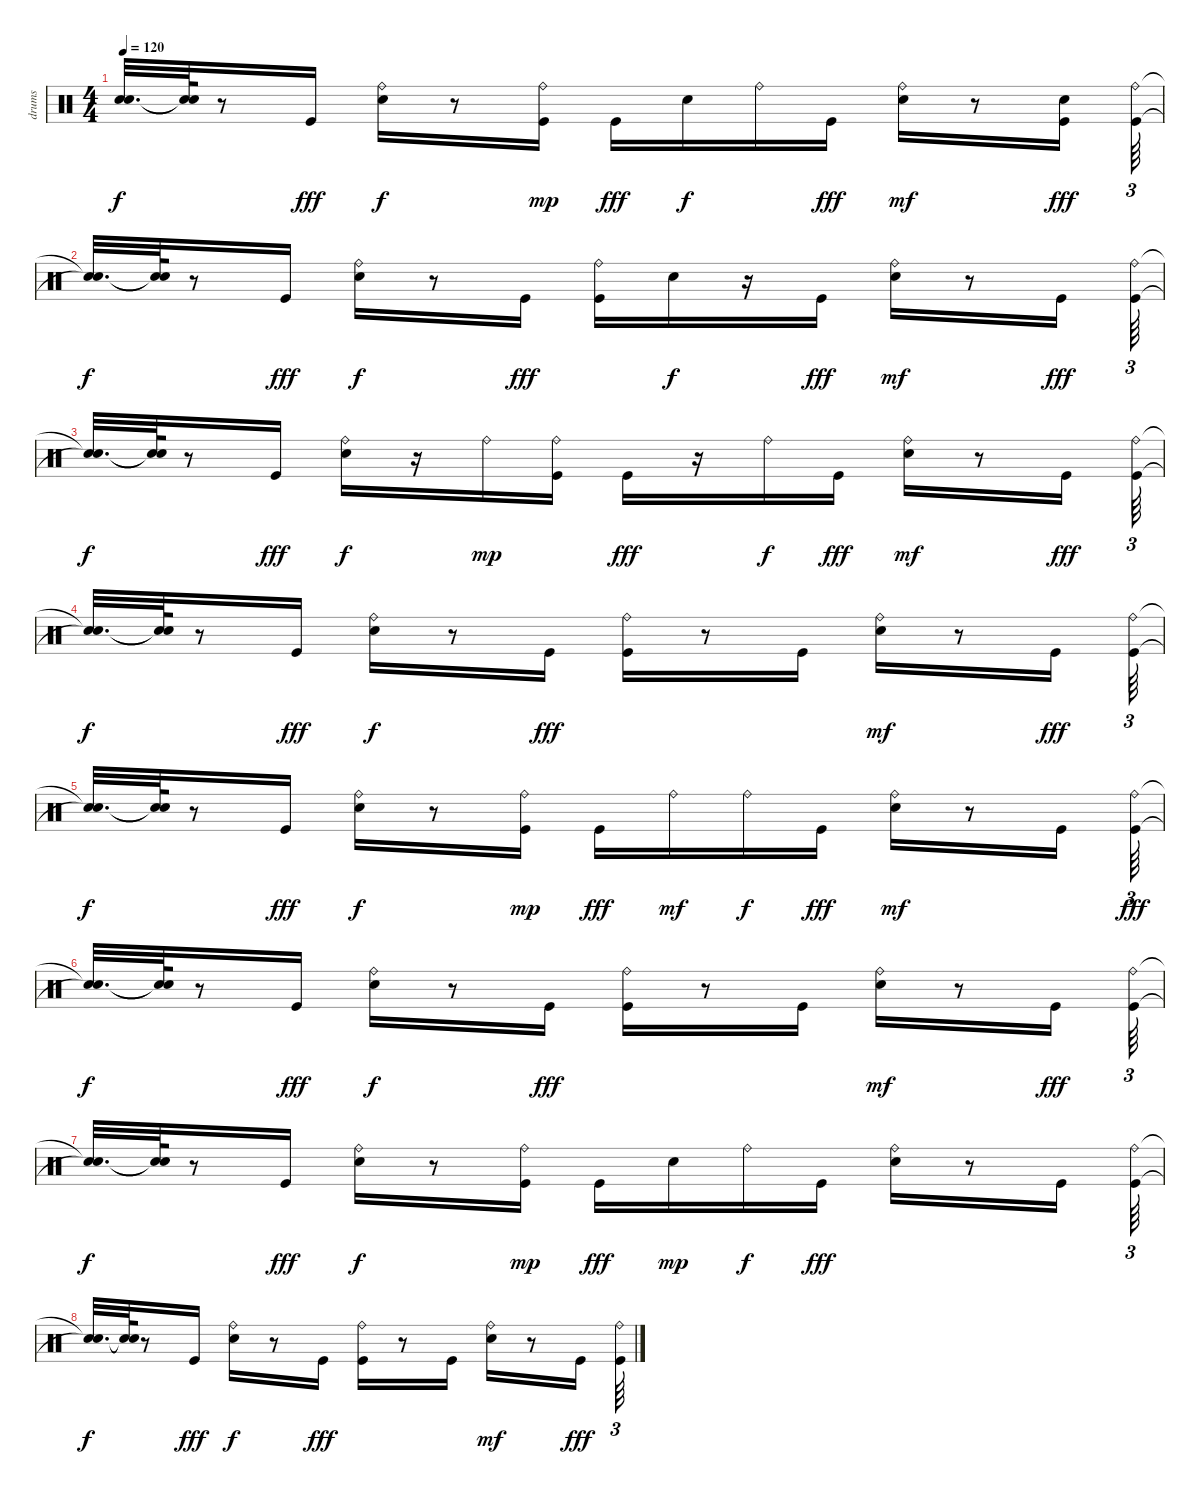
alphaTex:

\track ("drums" "drums") {instrument percussion}
\staff {score}
\articulation defaults
\ts (4 4)
\tempo 120
\clef neutral
\ks c
("Snare (hit)"{t} "Snare (hit)"{t}).32{d dy f} ("Snare (hit)"{t} "Snare (hit)"{t}).64 r.8 "Kick (hit)".16{dy fff} ("Snare (hit) 2" "Ride (bell)").16{dy f} r.8 ("Kick (hit)" "Ride (bell)").16{dy mp} "Kick (hit)".16{dy fff} "Snare (hit) 2".16{dy f} "Ride (bell)".16 "Kick (hit)".16{dy fff} ("Snare (hit) 2" "Ride (bell)").16{dy mf} r.8 ("Kick (hit)" "Snare (hit) 2").16{dy fff} ("Kick (hit)" "Ride (bell)").64{tu (3 2)} |
("Snare (hit)"{t} "Snare (hit)"{t}).32{d dy f} ("Snare (hit)"{t} "Snare (hit)"{t}).64 r.8 "Kick (hit)".16{dy fff} ("Snare (hit) 2" "Ride (bell)").16{dy f} r.8 "Kick (hit)".16{dy fff} ("Kick (hit)" "Ride (bell)").16 "Snare (hit) 2".16{dy f} r.16 "Kick (hit)".16{dy fff} ("Snare (hit) 2" "Ride (bell)").16{dy mf} r.8 "Kick (hit)".16{dy fff} ("Kick (hit)" "Ride (bell)").64{tu (3 2)} |
("Snare (hit)"{t} "Snare (hit)"{t}).32{d dy f} ("Snare (hit)"{t} "Snare (hit)"{t}).64 r.8 "Kick (hit)".16{dy fff} ("Snare (hit) 2" "Ride (bell)").16{dy f} r.16 "Ride (bell)".16{dy mp} ("Kick (hit)" "Ride (bell)").16 "Kick (hit)".16{dy fff} r.16 "Ride (bell)".16{dy f} "Kick (hit)".16{dy fff} ("Snare (hit) 2" "Ride (bell)").16{dy mf} r.8 "Kick (hit)".16{dy fff} ("Kick (hit)" "Ride (bell)").64{tu (3 2)} |
("Snare (hit)"{t} "Snare (hit)"{t}).32{d dy f} ("Snare (hit)"{t} "Snare (hit)"{t}).64 r.8 "Kick (hit)".16{dy fff} ("Snare (hit) 2" "Ride (bell)").16{dy f} r.8 "Kick (hit)".16{dy fff} ("Kick (hit)" "Ride (bell)").16 r.8 "Kick (hit)".16 ("Snare (hit) 2" "Ride (bell)").16{dy mf} r.8 "Kick (hit)".16{dy fff} ("Kick (hit)" "Ride (bell)").64{tu (3 2)} |
("Snare (hit)"{t} "Snare (hit)"{t}).32{d dy f} ("Snare (hit)"{t} "Snare (hit)"{t}).64 r.8 "Kick (hit)".16{dy fff} ("Snare (hit) 2" "Ride (bell)").16{dy f} r.8 ("Kick (hit)" "Ride (bell)").16{dy mp} "Kick (hit)".16{dy fff} "Ride (bell)".16{dy mf} "Ride (bell)".16{dy f} "Kick (hit)".16{dy fff} ("Snare (hit) 2" "Ride (bell)").16{dy mf} r.8 "Kick (hit)".16 ("Kick (hit)" "Ride (bell)").64{tu (3 2) dy fff} |
("Snare (hit)"{t} "Snare (hit)"{t}).32{d dy f} ("Snare (hit)"{t} "Snare (hit)"{t}).64 r.8 "Kick (hit)".16{dy fff} ("Snare (hit) 2" "Ride (bell)").16{dy f} r.8 "Kick (hit)".16{dy fff} ("Kick (hit)" "Ride (bell)").16 r.8 "Kick (hit)".16 ("Snare (hit) 2" "Ride (bell)").16{dy mf} r.8 "Kick (hit)".16{dy fff} ("Kick (hit)" "Ride (bell)").64{tu (3 2)} |
("Snare (hit)"{t} "Snare (hit)"{t}).32{d dy f} ("Snare (hit)"{t} "Snare (hit)"{t}).64 r.8 "Kick (hit)".16{dy fff} ("Snare (hit) 2" "Ride (bell)").16{dy f} r.8 ("Kick (hit)" "Ride (bell)").16{dy mp} "Kick (hit)".16{dy fff} "Snare (hit) 2".16{dy mp} "Ride (bell)".16{dy f} "Kick (hit)".16{dy fff} ("Snare (hit) 2" "Ride (bell)").16 r.8 "Kick (hit)".16 ("Kick (hit)" "Ride (bell)").64{tu (3 2)} |
("Snare (hit)"{t} "Snare (hit)"{t}).32{d dy f} ("Snare (hit)"{t} "Snare (hit)"{t}).64 r.8 "Kick (hit)".16{dy fff} ("Snare (hit) 2" "Ride (bell)").16{dy f} r.8 "Kick (hit)".16{dy fff} ("Kick (hit)" "Ride (bell)").16 r.8 "Kick (hit)".16 ("Snare (hit) 2" "Ride (bell)").16{dy mf} r.8 "Kick (hit)".16{dy fff} ("Kick (hit)" "Ride (bell)").64{tu (3 2)}
